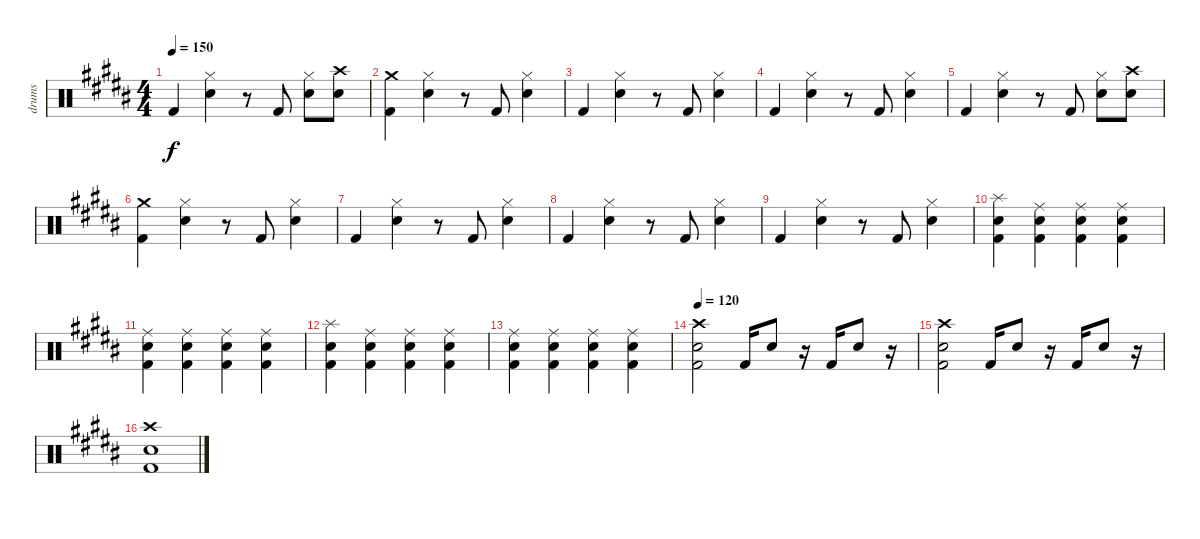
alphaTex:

\track ("drums" "drums") {instrument percussion}
\staff {score}
\articulation defaults
\ts (4 4)
\tempo 150
\clef neutral
\ks b "Kick (hit) 2".4{dy f}
("Hi-Hat (closed)" "Electric Snare (hit)").4 r.8 "Kick (hit) 2".8 ("Hi-Hat (closed)" "Electric Snare (hit)").8 ("Crash high (hit)" "Electric Snare (hit)").8 |
("Kick (hit) 2" "Crash medium (hit)").4 ("Hi-Hat (closed)" "Electric Snare (hit)").4 r.8 "Kick (hit) 2".8 ("Hi-Hat (closed)" "Electric Snare (hit)").4 |
"Kick (hit) 2".4 ("Hi-Hat (closed)" "Electric Snare (hit)").4 r.8 "Kick (hit) 2".8 ("Hi-Hat (closed)" "Electric Snare (hit)").4 |
"Kick (hit) 2".4 ("Hi-Hat (closed)" "Electric Snare (hit)").4 r.8 "Kick (hit) 2".8 ("Hi-Hat (closed)" "Electric Snare (hit)").4 |
"Kick (hit) 2".4 ("Hi-Hat (closed)" "Electric Snare (hit)").4 r.8 "Kick (hit) 2".8 ("Hi-Hat (closed)" "Electric Snare (hit)").8 ("Crash high (hit)" "Electric Snare (hit)").8 |
("Kick (hit) 2" "Crash medium (hit)").4 ("Hi-Hat (closed)" "Electric Snare (hit)").4 r.8 "Kick (hit) 2".8 ("Hi-Hat (closed)" "Electric Snare (hit)").4 |
"Kick (hit) 2".4 ("Hi-Hat (closed)" "Electric Snare (hit)").4 r.8 "Kick (hit) 2".8 ("Hi-Hat (closed)" "Electric Snare (hit)").4 |
"Kick (hit) 2".4 ("Hi-Hat (closed)" "Electric Snare (hit)").4 r.8 "Kick (hit) 2".8 ("Hi-Hat (closed)" "Electric Snare (hit)").4 |
"Kick (hit) 2".4 ("Hi-Hat (closed)" "Electric Snare (hit)").4 r.8 "Kick (hit) 2".8 ("Hi-Hat (closed)" "Electric Snare (hit)").4 |
("Splash (hit)" "Electric Snare (hit)" "Kick (hit) 2").4 ("Kick (hit) 2" "Electric Snare (hit)" "Ride (middle)").4 ("Kick (hit) 2" "Electric Snare (hit)" "Ride (middle)").4 ("Kick (hit) 2" "Electric Snare (hit)" "Ride (middle)").4 |
("Kick (hit) 2" "Electric Snare (hit)" "Ride (middle)").4 ("Kick (hit) 2" "Electric Snare (hit)" "Ride (middle)").4 ("Kick (hit) 2" "Electric Snare (hit)" "Ride (middle)").4 ("Kick (hit) 2" "Electric Snare (hit)" "Ride (middle)").4 |
("Splash (hit)" "Electric Snare (hit)" "Kick (hit) 2").4 ("Kick (hit) 2" "Electric Snare (hit)" "Ride (middle)").4 ("Kick (hit) 2" "Electric Snare (hit)" "Ride (middle)").4 ("Kick (hit) 2" "Electric Snare (hit)" "Ride (middle)").4 |
("Kick (hit) 2" "Electric Snare (hit)" "Ride (middle)").4 ("Kick (hit) 2" "Electric Snare (hit)" "Ride (middle)").4 ("Kick (hit) 2" "Electric Snare (hit)" "Ride (middle)").4 ("Kick (hit) 2" "Electric Snare (hit)" "Ride (middle)").4 |
\tempo 120
("Crash high (hit)" "Kick (hit) 2" "Electric Snare (hit)").2 "Kick (hit) 2".16 "Electric Snare (hit)".8 r.16 "Kick (hit) 2".16 "Electric Snare (hit)".8 r.16 |
("Crash high (hit)" "Kick (hit) 2" "Electric Snare (hit)").2 "Kick (hit) 2".16 "Electric Snare (hit)".8 r.16 "Kick (hit) 2".16 "Electric Snare (hit)".8 r.16 |
("Crash high (hit)" "Kick (hit) 2" "Electric Snare (hit)").1
